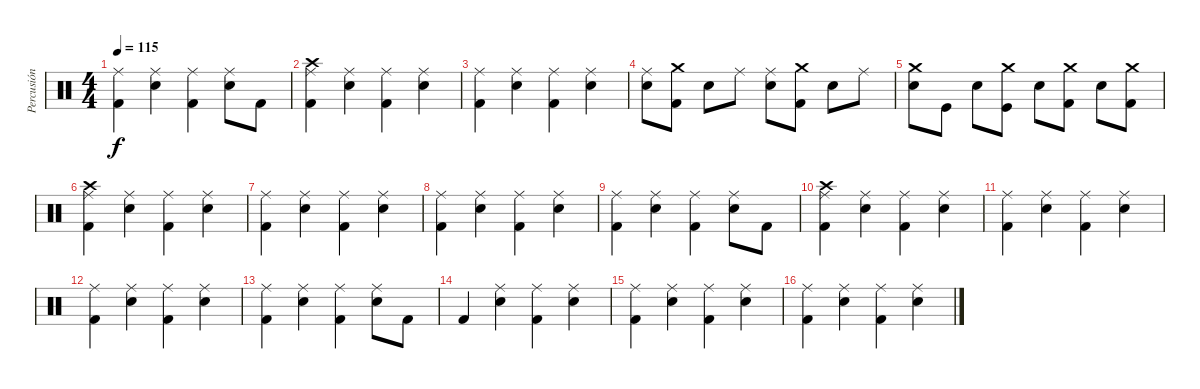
\track ("Percusión" "Percusión") {instrument percussion}
\staff {score}
\articulation defaults
\ts (4 4)
\tempo 115
\clef neutral
\ks c
("Kick (hit) 2" "Ride (middle)").4{dy f} ("Snare (hit) 2" "Ride (middle)").4 ("Kick (hit) 2" "Ride (middle)").4 ("Snare (hit) 2" "Ride (middle)").8 "Kick (hit) 2".8 |
("Kick (hit) 2" "Ride (middle)" "Crash high (hit)").4 ("Snare (hit) 2" "Ride (middle)").4 ("Kick (hit) 2" "Ride (middle)").4 ("Snare (hit) 2" "Ride (middle)").4 |
("Kick (hit) 2" "Ride (middle)").4 ("Snare (hit) 2" "Ride (middle)").4 ("Kick (hit) 2" "Ride (middle)").4 ("Snare (hit) 2" "Ride (middle)").4 |
("Snare (hit) 2" "Ride (middle)").8 ("Kick (hit) 2" "Crash medium (hit)").8 "Snare (hit) 2".8 "Ride (middle)".8 ("Snare (hit) 2" "Ride (middle)").8 ("Kick (hit) 2" "Crash medium (hit)").8 "Snare (hit) 2".8 "Ride (middle)".8 |
("Snare (hit) 2" "Crash medium (hit)").8 "Kick (hit)".8 "Snare (hit) 2".8 ("Kick (hit)" "Crash medium (hit)").8 "Snare (hit) 2".8 ("Kick (hit) 2" "Crash medium (hit)").8 "Snare (hit) 2".8 ("Kick (hit) 2" "Crash medium (hit)").8 |
("Kick (hit) 2" "Ride (middle)" "Crash high (hit)").4 ("Snare (hit) 2" "Ride (middle)").4 ("Kick (hit) 2" "Ride (middle)").4 ("Snare (hit) 2" "Ride (middle)").4 |
("Kick (hit) 2" "Ride (middle)").4 ("Snare (hit) 2" "Ride (middle)").4 ("Kick (hit) 2" "Ride (middle)").4 ("Snare (hit) 2" "Ride (middle)").4 |
("Kick (hit) 2" "Ride (middle)").4 ("Snare (hit) 2" "Ride (middle)").4 ("Kick (hit) 2" "Ride (middle)").4 ("Snare (hit) 2" "Ride (middle)").4 |
("Kick (hit) 2" "Ride (middle)").4 ("Snare (hit) 2" "Ride (middle)").4 ("Kick (hit) 2" "Ride (middle)").4 ("Snare (hit) 2" "Ride (middle)").8 "Kick (hit) 2".8 |
("Kick (hit) 2" "Ride (middle)" "Crash high (hit)").4 ("Snare (hit) 2" "Ride (middle)").4 ("Kick (hit) 2" "Ride (middle)").4 ("Snare (hit) 2" "Ride (middle)").4 |
("Kick (hit) 2" "Ride (middle)").4 ("Snare (hit) 2" "Ride (middle)").4 ("Kick (hit) 2" "Ride (middle)").4 ("Snare (hit) 2" "Ride (middle)").4 |
("Kick (hit) 2" "Ride (middle)").4 ("Snare (hit) 2" "Ride (middle)").4 ("Kick (hit) 2" "Ride (middle)").4 ("Snare (hit) 2" "Ride (middle)").4 |
("Kick (hit) 2" "Ride (middle)").4 ("Snare (hit) 2" "Ride (middle)").4 ("Kick (hit) 2" "Ride (middle)").4 ("Snare (hit) 2" "Ride (middle)").8 "Kick (hit) 2".8 |
"Kick (hit) 2".4 ("Snare (hit) 2" "Ride (middle)").4 ("Kick (hit) 2" "Ride (middle)").4 ("Snare (hit) 2" "Ride (middle)").4 |
("Kick (hit) 2" "Ride (middle)").4 ("Snare (hit) 2" "Ride (middle)").4 ("Kick (hit) 2" "Ride (middle)").4 ("Snare (hit) 2" "Ride (middle)").4 |
("Kick (hit) 2" "Ride (middle)").4 ("Snare (hit) 2" "Ride (middle)").4 ("Kick (hit) 2" "Ride (middle)").4 ("Snare (hit) 2" "Ride (middle)").4
